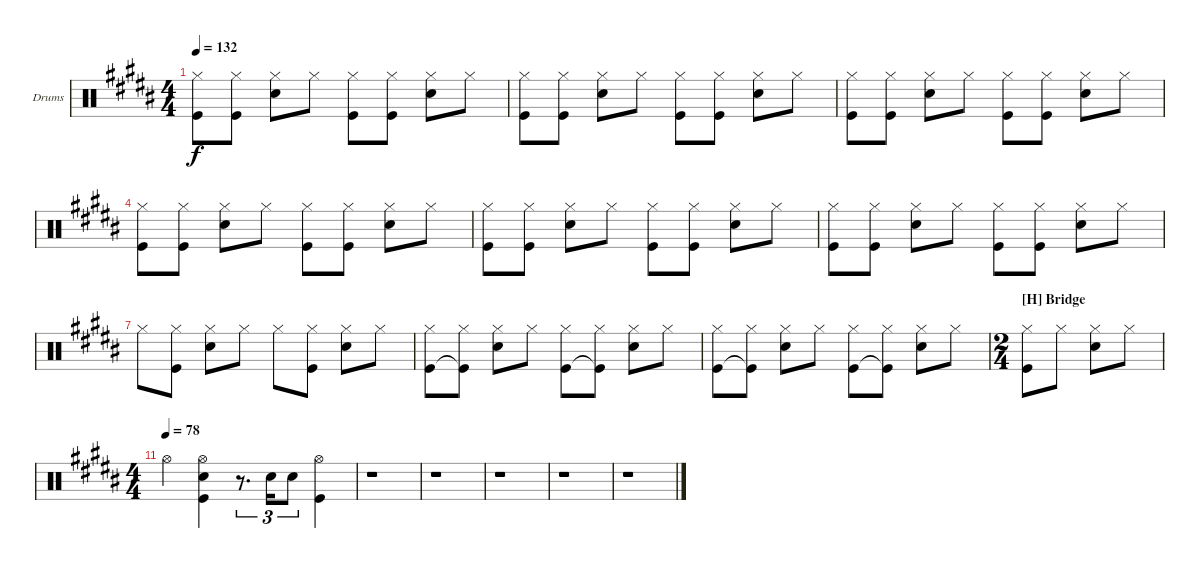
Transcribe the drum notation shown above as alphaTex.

\bracketExtendMode nobrackets
\firstSystemTrackNameOrientation horizontal
\otherSystemsTrackNameOrientation horizontal
\defaultBarNumberDisplay FirstOfSystem
\track ("Drumkit" "Drums") {instrument percussion}
\staff {score}
\articulation defaults
\ts (4 4)
\tempo 132
\clef neutral
\ks b
("Hi-Hat (closed)" "Kick (hit)").8{dy f} ("Hi-Hat (closed)" "Kick (hit)").8 ("Hi-Hat (closed)" "Snare (hit) 2").8 "Hi-Hat (closed)".8 ("Hi-Hat (closed)" "Kick (hit)").8 ("Hi-Hat (closed)" "Kick (hit)").8 ("Hi-Hat (closed)" "Snare (hit) 2").8 "Hi-Hat (closed)".8 |
("Hi-Hat (closed)" "Kick (hit)").8 ("Hi-Hat (closed)" "Kick (hit)").8 ("Hi-Hat (closed)" "Snare (hit) 2").8 "Hi-Hat (closed)".8 ("Hi-Hat (closed)" "Kick (hit)").8 ("Hi-Hat (closed)" "Kick (hit)").8 ("Hi-Hat (closed)" "Snare (hit) 2").8 "Hi-Hat (closed)".8 |
("Hi-Hat (closed)" "Kick (hit)").8 ("Hi-Hat (closed)" "Kick (hit)").8 ("Hi-Hat (closed)" "Snare (hit) 2").8 "Hi-Hat (closed)".8 ("Hi-Hat (closed)" "Kick (hit)").8 ("Hi-Hat (closed)" "Kick (hit)").8 ("Hi-Hat (closed)" "Snare (hit) 2").8 "Hi-Hat (closed)".8 |
("Hi-Hat (closed)" "Kick (hit)").8 ("Hi-Hat (closed)" "Kick (hit)").8 ("Hi-Hat (closed)" "Snare (hit) 2").8 "Hi-Hat (closed)".8 ("Hi-Hat (closed)" "Kick (hit)").8 ("Hi-Hat (closed)" "Kick (hit)").8 ("Hi-Hat (closed)" "Snare (hit) 2").8 "Hi-Hat (closed)".8 |
("Hi-Hat (closed)" "Kick (hit)").8 ("Hi-Hat (closed)" "Kick (hit)").8 ("Hi-Hat (closed)" "Snare (hit) 2").8 "Hi-Hat (closed)".8 ("Hi-Hat (closed)" "Kick (hit)").8 ("Hi-Hat (closed)" "Kick (hit)").8 ("Hi-Hat (closed)" "Snare (hit) 2").8 "Hi-Hat (closed)".8 |
("Hi-Hat (closed)" "Kick (hit)").8 ("Hi-Hat (closed)" "Kick (hit)").8 ("Hi-Hat (closed)" "Snare (hit) 2").8 "Hi-Hat (closed)".8 ("Hi-Hat (closed)" "Kick (hit)").8 ("Hi-Hat (closed)" "Kick (hit)").8 ("Hi-Hat (closed)" "Snare (hit) 2").8 "Hi-Hat (closed)".8 |
"Hi-Hat (closed)".8 ("Hi-Hat (closed)" "Kick (hit)").8 ("Hi-Hat (closed)" "Snare (hit) 2").8 "Hi-Hat (closed)".8 "Hi-Hat (closed)".8 ("Hi-Hat (closed)" "Kick (hit)").8 ("Hi-Hat (closed)" "Snare (hit) 2").8 "Hi-Hat (closed)".8 |
("Hi-Hat (closed)" "Kick (hit)").8 ("Hi-Hat (closed)" "Kick (hit)"{t}).8 ("Hi-Hat (closed)" "Snare (hit) 2").8 "Hi-Hat (closed)".8 ("Hi-Hat (closed)" "Kick (hit)").8 ("Hi-Hat (closed)" "Kick (hit)"{t}).8 ("Hi-Hat (closed)" "Snare (hit) 2").8 "Hi-Hat (closed)".8 |
("Hi-Hat (closed)" "Kick (hit)").8 ("Hi-Hat (closed)" "Kick (hit)"{t}).8 ("Hi-Hat (closed)" "Snare (hit) 2").8 "Hi-Hat (closed)".8 ("Hi-Hat (closed)" "Kick (hit)").8 ("Hi-Hat (closed)" "Kick (hit)"{t}).8 ("Hi-Hat (closed)" "Snare (hit) 2").8 "Hi-Hat (closed)".8 |
\ts (2 4)
\beaming (8 2 2)
\section ("H" "Bridge")
("Hi-Hat (closed)" "Kick (hit)").8 "Hi-Hat (closed)".8 ("Hi-Hat (closed)" "Snare (hit) 2").8 "Hi-Hat (closed)".8 |
\ts (4 4)
\beaming (8 2 2 2 2)
\tempo (78)
"Hi-Hat (open)".4 ("Hi-Hat (open)" "Snare (hit) 2" "Kick (hit)").4 r.8{d tu (3 2)} "Snare (hit) 2".16{tu (3 2)} "Snare (hit) 2".8{tu (3 2)} ("Hi-Hat (open)" "Kick (hit)").4 |
r.1 |
r.1 |
r.1 |
r.1 |
r.1
